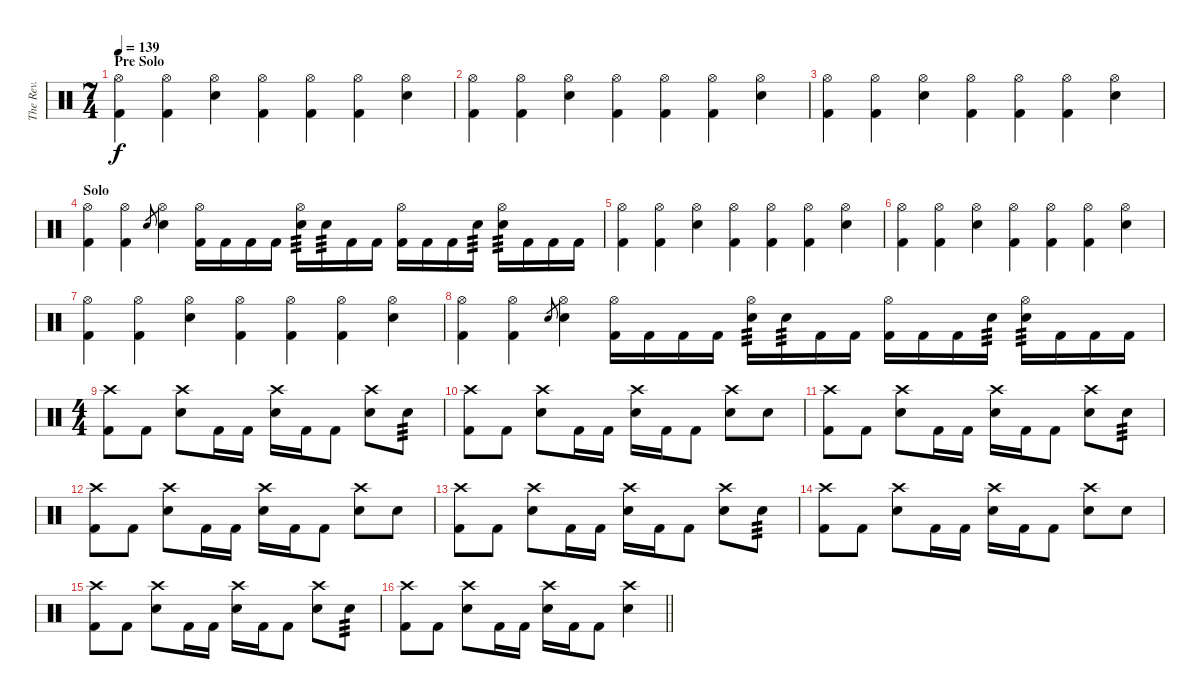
\track ("The Rev." "The Rev.") {instrument percussion}
\staff {score}
\articulation defaults
\ts (7 4)
\section ("" "Pre Solo")
\tempo 139
\clef neutral
\ks c
("Hi-Hat (open)" "Kick (hit) 2").4{dy f} ("Hi-Hat (open)" "Kick (hit) 2").4 ("Hi-Hat (open)" "Electric Snare (hit)").4 ("Hi-Hat (open)" "Kick (hit) 2").4 ("Hi-Hat (open)" "Kick (hit) 2").4 ("Hi-Hat (open)" "Kick (hit) 2").4 ("Hi-Hat (open)" "Electric Snare (hit)").4 |
("Hi-Hat (open)" "Kick (hit) 2").4 ("Hi-Hat (open)" "Kick (hit) 2").4 ("Hi-Hat (open)" "Electric Snare (hit)").4 ("Hi-Hat (open)" "Kick (hit) 2").4 ("Hi-Hat (open)" "Kick (hit) 2").4 ("Hi-Hat (open)" "Kick (hit) 2").4 ("Hi-Hat (open)" "Electric Snare (hit)").4 |
("Hi-Hat (open)" "Kick (hit) 2").4 ("Hi-Hat (open)" "Kick (hit) 2").4 ("Hi-Hat (open)" "Electric Snare (hit)").4 ("Hi-Hat (open)" "Kick (hit) 2").4 ("Hi-Hat (open)" "Kick (hit) 2").4 ("Hi-Hat (open)" "Kick (hit) 2").4 ("Hi-Hat (open)" "Electric Snare (hit)").4 |
\section ("" "Solo")
("Hi-Hat (open)" "Kick (hit) 2").4 ("Hi-Hat (open)" "Kick (hit) 2").4 "Electric Snare (hit)".8{gr} ("Hi-Hat (open)" "Electric Snare (hit)").4 ("Hi-Hat (open)" "Kick (hit) 2").16 "Kick (hit) 2".16 "Kick (hit) 2".16 "Kick (hit) 2".16 ("Hi-Hat (open)" "Electric Snare (hit)").16{tp 3} "Electric Snare (hit)".16{tp 3} "Kick (hit) 2".16 "Kick (hit) 2".16 ("Hi-Hat (open)" "Kick (hit) 2").16 "Kick (hit) 2".16 "Kick (hit) 2".16 "Electric Snare (hit)".16{tp 3} ("Hi-Hat (open)" "Electric Snare (hit)").16{tp 3} "Kick (hit) 2".16 "Kick (hit) 2".16 "Kick (hit) 2".16 |
("Hi-Hat (open)" "Kick (hit) 2").4 ("Hi-Hat (open)" "Kick (hit) 2").4 ("Hi-Hat (open)" "Electric Snare (hit)").4 ("Hi-Hat (open)" "Kick (hit) 2").4 ("Hi-Hat (open)" "Kick (hit) 2").4 ("Hi-Hat (open)" "Kick (hit) 2").4 ("Hi-Hat (open)" "Electric Snare (hit)").4 |
("Hi-Hat (open)" "Kick (hit) 2").4 ("Hi-Hat (open)" "Kick (hit) 2").4 ("Hi-Hat (open)" "Electric Snare (hit)").4 ("Hi-Hat (open)" "Kick (hit) 2").4 ("Hi-Hat (open)" "Kick (hit) 2").4 ("Hi-Hat (open)" "Kick (hit) 2").4 ("Hi-Hat (open)" "Electric Snare (hit)").4 |
("Hi-Hat (open)" "Kick (hit) 2").4 ("Hi-Hat (open)" "Kick (hit) 2").4 ("Hi-Hat (open)" "Electric Snare (hit)").4 ("Hi-Hat (open)" "Kick (hit) 2").4 ("Hi-Hat (open)" "Kick (hit) 2").4 ("Hi-Hat (open)" "Kick (hit) 2").4 ("Hi-Hat (open)" "Electric Snare (hit)").4 |
("Hi-Hat (open)" "Kick (hit) 2").4 ("Hi-Hat (open)" "Kick (hit) 2").4 "Electric Snare (hit)".8{gr} ("Hi-Hat (open)" "Electric Snare (hit)").4 ("Hi-Hat (open)" "Kick (hit) 2").16 "Kick (hit) 2".16 "Kick (hit) 2".16 "Kick (hit) 2".16 ("Hi-Hat (open)" "Electric Snare (hit)").16{tp 3} "Electric Snare (hit)".16{tp 3} "Kick (hit) 2".16 "Kick (hit) 2".16 ("Hi-Hat (open)" "Kick (hit) 2").16 "Kick (hit) 2".16 "Kick (hit) 2".16 "Electric Snare (hit)".16{tp 3} ("Hi-Hat (open)" "Electric Snare (hit)").16{tp 3} "Kick (hit) 2".16 "Kick (hit) 2".16 "Kick (hit) 2".16 |
\ts (4 4)
("Crash high (hit)" "Kick (hit) 2").8 "Kick (hit) 2".8 ("Crash high (hit)" "Electric Snare (hit)").8 "Kick (hit) 2".16 "Kick (hit) 2".16 ("Crash high (hit)" "Electric Snare (hit)").16 "Kick (hit) 2".16 "Kick (hit) 2".8 ("Crash high (hit)" "Electric Snare (hit)").8 "Electric Snare (hit)".8{tp 3} |
("Crash high (hit)" "Kick (hit) 2").8 "Kick (hit) 2".8 ("Crash high (hit)" "Electric Snare (hit)").8 "Kick (hit) 2".16 "Kick (hit) 2".16 ("Crash high (hit)" "Electric Snare (hit)").16 "Kick (hit) 2".16 "Kick (hit) 2".8 ("Crash high (hit)" "Electric Snare (hit)").8 "Electric Snare (hit)".8 |
("Crash high (hit)" "Kick (hit) 2").8 "Kick (hit) 2".8 ("Crash high (hit)" "Electric Snare (hit)").8 "Kick (hit) 2".16 "Kick (hit) 2".16 ("Crash high (hit)" "Electric Snare (hit)").16 "Kick (hit) 2".16 "Kick (hit) 2".8 ("Crash high (hit)" "Electric Snare (hit)").8 "Electric Snare (hit)".8{tp 3} |
("Crash high (hit)" "Kick (hit) 2").8 "Kick (hit) 2".8 ("Crash high (hit)" "Electric Snare (hit)").8 "Kick (hit) 2".16 "Kick (hit) 2".16 ("Crash high (hit)" "Electric Snare (hit)").16 "Kick (hit) 2".16 "Kick (hit) 2".8 ("Crash high (hit)" "Electric Snare (hit)").8 "Electric Snare (hit)".8 |
("Crash high (hit)" "Kick (hit) 2").8 "Kick (hit) 2".8 ("Crash high (hit)" "Electric Snare (hit)").8 "Kick (hit) 2".16 "Kick (hit) 2".16 ("Crash high (hit)" "Electric Snare (hit)").16 "Kick (hit) 2".16 "Kick (hit) 2".8 ("Crash high (hit)" "Electric Snare (hit)").8 "Electric Snare (hit)".8{tp 3} |
("Crash high (hit)" "Kick (hit) 2").8 "Kick (hit) 2".8 ("Crash high (hit)" "Electric Snare (hit)").8 "Kick (hit) 2".16 "Kick (hit) 2".16 ("Crash high (hit)" "Electric Snare (hit)").16 "Kick (hit) 2".16 "Kick (hit) 2".8 ("Crash high (hit)" "Electric Snare (hit)").8 "Electric Snare (hit)".8 |
("Crash high (hit)" "Kick (hit) 2").8 "Kick (hit) 2".8 ("Crash high (hit)" "Electric Snare (hit)").8 "Kick (hit) 2".16 "Kick (hit) 2".16 ("Crash high (hit)" "Electric Snare (hit)").16 "Kick (hit) 2".16 "Kick (hit) 2".8 ("Crash high (hit)" "Electric Snare (hit)").8 "Electric Snare (hit)".8{tp 3} |
\barLineRight lightlight
("Crash high (hit)" "Kick (hit) 2").8 "Kick (hit) 2".8 ("Crash high (hit)" "Electric Snare (hit)").8 "Kick (hit) 2".16 "Kick (hit) 2".16 ("Crash high (hit)" "Electric Snare (hit)").16 "Kick (hit) 2".16 "Kick (hit) 2".8 ("Crash high (hit)" "Electric Snare (hit)").4
